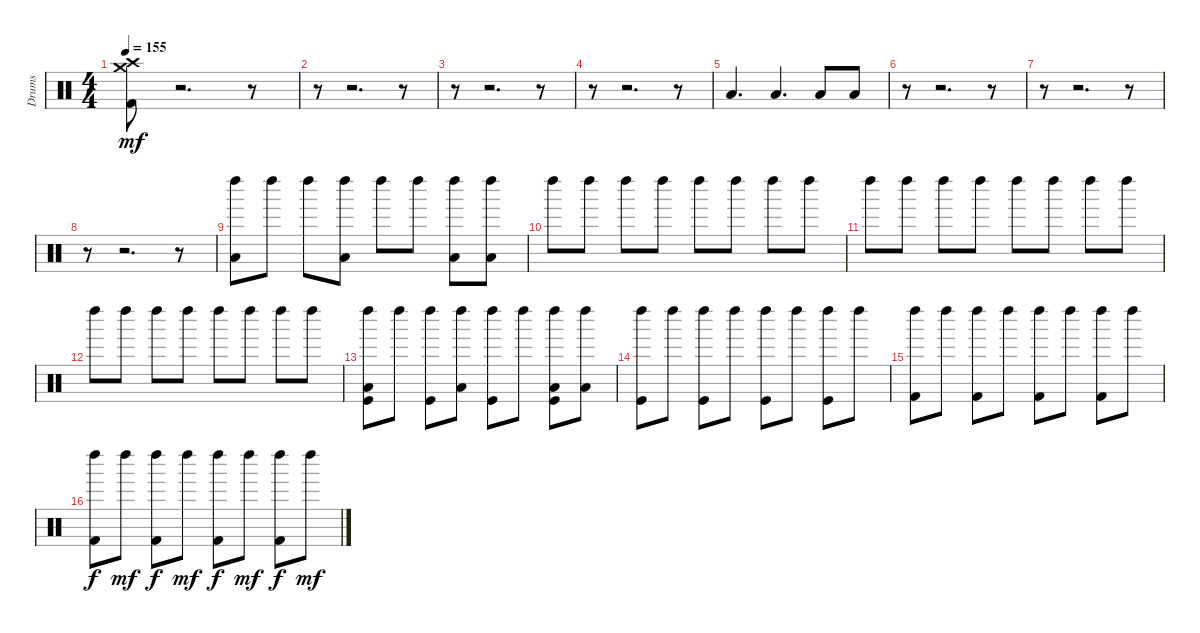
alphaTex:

\track ("Drums" "Drums") {instrument percussion}
\staff {score}
\articulation defaults
\ts (4 4)
\tempo 155
\clef neutral
\ks c
("Crash medium (hit)" "Crash high (hit)" "Kick (hit) 2").8{dy mf} r.2{d} r.8 |
r.8 r.2{d} r.8 |
r.8 r.2{d} r.8 |
r.8 r.2{d} r.8 |
"Low Floor Tom (hit)".4{d} "Low Floor Tom (hit)".4{d} "Low Floor Tom (hit)".8 "Low Floor Tom (hit)".8 |
r.8 r.2{d} r.8 |
r.8 r.2{d} r.8 |
r.8 r.2{d} r.8 |
("Left Maraca (hit)" "Low Floor Tom (hit)").8 "Left Maraca (hit)".8 "Left Maraca (hit)".8 ("Left Maraca (hit)" "Low Floor Tom (hit)").8 "Left Maraca (hit)".8 "Left Maraca (hit)".8 ("Left Maraca (hit)" "Low Floor Tom (hit)").8 ("Left Maraca (hit)" "Low Floor Tom (hit)").8 |
"Left Maraca (hit)".8 "Left Maraca (hit)".8 "Left Maraca (hit)".8 "Left Maraca (hit)".8 "Left Maraca (hit)".8 "Left Maraca (hit)".8 "Left Maraca (hit)".8 "Left Maraca (hit)".8 |
"Left Maraca (hit)".8 "Left Maraca (hit)".8 "Left Maraca (hit)".8 "Left Maraca (hit)".8 "Left Maraca (hit)".8 "Left Maraca (hit)".8 "Left Maraca (hit)".8 "Left Maraca (hit)".8 |
"Left Maraca (hit)".8 "Left Maraca (hit)".8 "Left Maraca (hit)".8 "Left Maraca (hit)".8 "Left Maraca (hit)".8 "Left Maraca (hit)".8 "Left Maraca (hit)".8 "Left Maraca (hit)".8 |
("Left Maraca (hit)" "Low Floor Tom (hit)" "Kick (hit)").8 "Left Maraca (hit)".8 ("Left Maraca (hit)" "Kick (hit)").8 ("Left Maraca (hit)" "Low Floor Tom (hit)").8 ("Left Maraca (hit)" "Kick (hit)").8 "Left Maraca (hit)".8 ("Left Maraca (hit)" "Low Floor Tom (hit)" "Kick (hit)").8 ("Left Maraca (hit)" "Low Floor Tom (hit)").8 |
("Left Maraca (hit)" "Kick (hit)").8 "Left Maraca (hit)".8 ("Left Maraca (hit)" "Kick (hit)").8 "Left Maraca (hit)".8 ("Left Maraca (hit)" "Kick (hit)").8 "Left Maraca (hit)".8 ("Left Maraca (hit)" "Kick (hit)").8 "Left Maraca (hit)".8 |
("Left Maraca (hit)" "Kick (hit) 2").8 "Left Maraca (hit)".8 ("Left Maraca (hit)" "Kick (hit) 2").8 "Left Maraca (hit)".8 ("Left Maraca (hit)" "Kick (hit) 2").8 "Left Maraca (hit)".8 ("Left Maraca (hit)" "Kick (hit) 2").8 "Left Maraca (hit)".8 |
("Left Maraca (hit)" "Kick (hit) 2").8{dy f} "Left Maraca (hit)".8{dy mf} ("Left Maraca (hit)" "Kick (hit) 2").8{dy f} "Left Maraca (hit)".8{dy mf} ("Left Maraca (hit)" "Kick (hit) 2").8{dy f} "Left Maraca (hit)".8{dy mf} ("Left Maraca (hit)" "Kick (hit) 2").8{dy f} "Left Maraca (hit)".8{dy mf}
